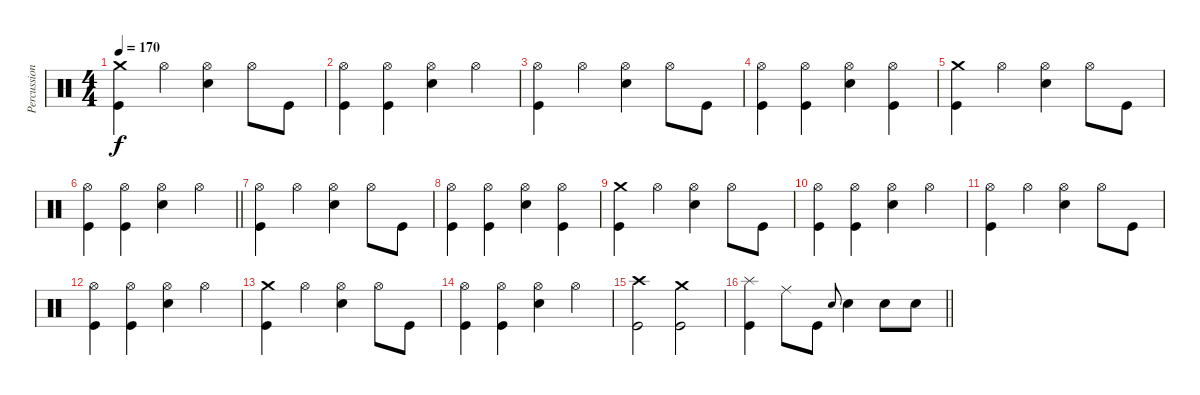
\track ("Percussion" "Percussion") {instrument percussion}
\staff {score}
\articulation defaults
\ts (4 4)
\tempo 170
\clef neutral
\ks c
("Crash medium (hit)" "Kick (hit)").4{dy f} "Hi-Hat (open)".4 ("Hi-Hat (open)" "Electric Snare (hit)").4 "Hi-Hat (open)".8 "Kick (hit)".8 |
("Hi-Hat (open)" "Kick (hit)").4 ("Hi-Hat (open)" "Kick (hit)").4 ("Hi-Hat (open)" "Electric Snare (hit)").4 "Hi-Hat (open)".4 |
("Hi-Hat (open)" "Kick (hit)").4 "Hi-Hat (open)".4 ("Hi-Hat (open)" "Electric Snare (hit)").4 "Hi-Hat (open)".8 "Kick (hit)".8 |
("Hi-Hat (open)" "Kick (hit)").4 ("Hi-Hat (open)" "Kick (hit)").4 ("Hi-Hat (open)" "Electric Snare (hit)").4 ("Hi-Hat (open)" "Kick (hit)").4 |
("Crash medium (hit)" "Kick (hit)").4 "Hi-Hat (open)".4 ("Hi-Hat (open)" "Electric Snare (hit)").4 "Hi-Hat (open)".8 "Kick (hit)".8 |
\barLineRight lightlight
("Hi-Hat (open)" "Kick (hit)").4 ("Hi-Hat (open)" "Kick (hit)").4 ("Hi-Hat (open)" "Electric Snare (hit)").4 "Hi-Hat (open)".4 |
("Hi-Hat (open)" "Kick (hit)").4 "Hi-Hat (open)".4 ("Hi-Hat (open)" "Electric Snare (hit)").4 "Hi-Hat (open)".8 "Kick (hit)".8 |
("Hi-Hat (open)" "Kick (hit)").4 ("Hi-Hat (open)" "Kick (hit)").4 ("Hi-Hat (open)" "Electric Snare (hit)").4 ("Hi-Hat (open)" "Kick (hit)").4 |
("Crash medium (hit)" "Kick (hit)").4 "Hi-Hat (open)".4 ("Hi-Hat (open)" "Electric Snare (hit)").4 "Hi-Hat (open)".8 "Kick (hit)".8 |
("Hi-Hat (open)" "Kick (hit)").4 ("Hi-Hat (open)" "Kick (hit)").4 ("Hi-Hat (open)" "Electric Snare (hit)").4 "Hi-Hat (open)".4 |
("Hi-Hat (open)" "Kick (hit)").4 "Hi-Hat (open)".4 ("Hi-Hat (open)" "Electric Snare (hit)").4 "Hi-Hat (open)".8 "Kick (hit)".8 |
("Hi-Hat (open)" "Kick (hit)").4 ("Hi-Hat (open)" "Kick (hit)").4 ("Hi-Hat (open)" "Electric Snare (hit)").4 "Hi-Hat (open)".4 |
("Crash medium (hit)" "Kick (hit)").4 "Hi-Hat (open)".4 ("Hi-Hat (open)" "Electric Snare (hit)").4 "Hi-Hat (open)".8 "Kick (hit)".8 |
("Hi-Hat (open)" "Kick (hit)").4 ("Hi-Hat (open)" "Kick (hit)").4 ("Hi-Hat (open)" "Electric Snare (hit)").4 "Hi-Hat (open)".4 |
("Crash high (hit)" "Kick (hit)").2 ("Crash medium (hit)" "Kick (hit)").2 |
\barLineRight lightlight
("Splash (hit)" "Kick (hit)").4 "Ride (middle)".8 "Kick (hit)".8 "Electric Snare (hit)".8{gr onbeat} "Electric Snare (hit)".4 "Electric Snare (hit)".8 "Electric Snare (hit)".8
